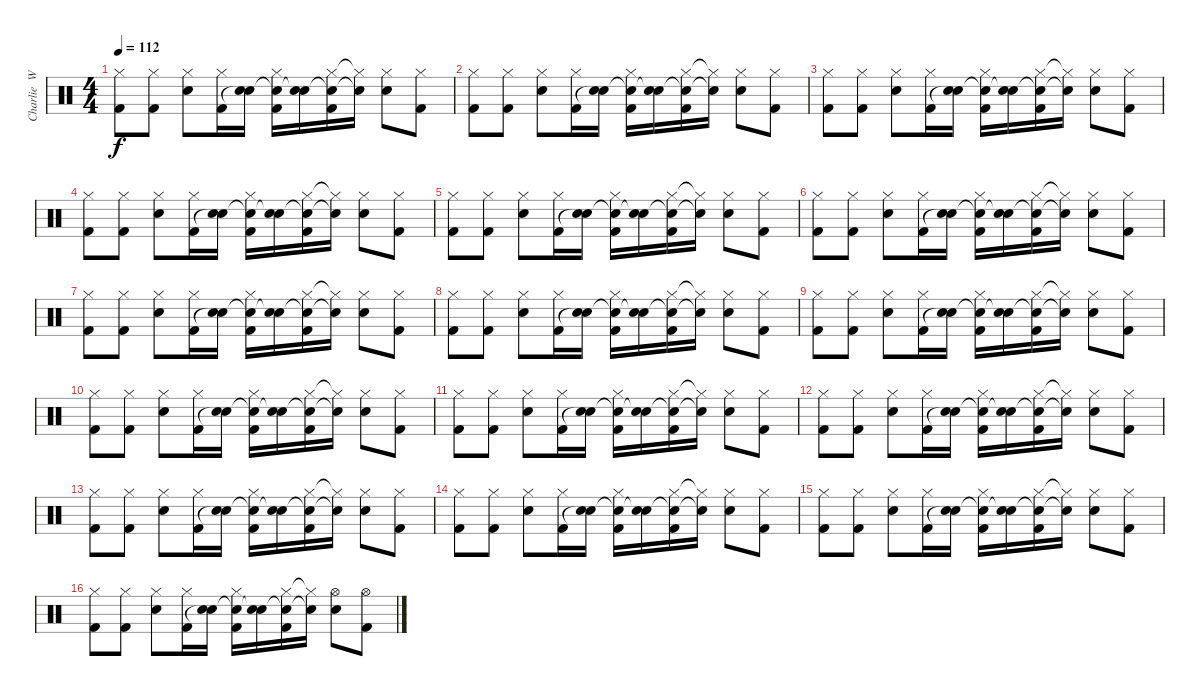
\track ("Charlie  Watts" "Charlie  W") {instrument percussion}
\staff {score}
\articulation defaults
\ts (4 4)
\tempo 112
\clef neutral
\ks c
("Hi-Hat (closed)" "Kick (hit) 2").8{dy f} ("Hi-Hat (closed)" "Kick (hit) 2").8 ("Hi-Hat (closed)" "Snare (hit) 2").8 ("Hi-Hat (closed)" "Kick (hit) 2").16 ("Snare (hit) 2" "Snare (hit)"{t}).16 ("Hi-Hat (closed)" "Snare (hit)"{t} "Kick (hit) 2").16 ("Snare (hit) 2" "Snare (hit)"{t}).16 ("Hi-Hat (closed)" "Snare (hit)"{t} "Kick (hit) 2").16 ("Hi-Hat (closed)"{t} "Snare (hit)"{t}).16 ("Hi-Hat (closed)" "Snare (hit) 2").8 ("Hi-Hat (closed)" "Kick (hit) 2").8 |
("Hi-Hat (closed)" "Kick (hit) 2").8 ("Hi-Hat (closed)" "Kick (hit) 2").8 ("Hi-Hat (closed)" "Snare (hit) 2").8 ("Hi-Hat (closed)" "Kick (hit) 2").16 ("Snare (hit) 2" "Snare (hit)"{t}).16 ("Hi-Hat (closed)" "Snare (hit)"{t} "Kick (hit) 2").16 ("Snare (hit) 2" "Snare (hit)"{t}).16 ("Hi-Hat (closed)" "Snare (hit)"{t} "Kick (hit) 2").16 ("Hi-Hat (closed)"{t} "Snare (hit)"{t}).16 ("Hi-Hat (closed)" "Snare (hit) 2").8 ("Hi-Hat (closed)" "Kick (hit) 2").8 |
("Hi-Hat (closed)" "Kick (hit) 2").8 ("Hi-Hat (closed)" "Kick (hit) 2").8 ("Hi-Hat (closed)" "Snare (hit) 2").8 ("Hi-Hat (closed)" "Kick (hit) 2").16 ("Snare (hit) 2" "Snare (hit)"{t}).16 ("Hi-Hat (closed)" "Snare (hit)"{t} "Kick (hit) 2").16 ("Snare (hit) 2" "Snare (hit)"{t}).16 ("Hi-Hat (closed)" "Snare (hit)"{t} "Kick (hit) 2").16 ("Hi-Hat (closed)"{t} "Snare (hit)"{t}).16 ("Hi-Hat (closed)" "Snare (hit) 2").8 ("Hi-Hat (closed)" "Kick (hit) 2").8 |
("Hi-Hat (closed)" "Kick (hit) 2").8 ("Hi-Hat (closed)" "Kick (hit) 2").8 ("Hi-Hat (closed)" "Snare (hit) 2").8 ("Hi-Hat (closed)" "Kick (hit) 2").16 ("Snare (hit) 2" "Snare (hit)"{t}).16 ("Hi-Hat (closed)" "Snare (hit)"{t} "Kick (hit) 2").16 ("Snare (hit) 2" "Snare (hit)"{t}).16 ("Hi-Hat (closed)" "Snare (hit)"{t} "Kick (hit) 2").16 ("Hi-Hat (closed)"{t} "Snare (hit)"{t}).16 ("Hi-Hat (closed)" "Snare (hit) 2").8 ("Hi-Hat (closed)" "Kick (hit) 2").8 |
("Hi-Hat (closed)" "Kick (hit) 2").8 ("Hi-Hat (closed)" "Kick (hit) 2").8 ("Hi-Hat (closed)" "Snare (hit) 2").8 ("Hi-Hat (closed)" "Kick (hit) 2").16 ("Snare (hit) 2" "Snare (hit)"{t}).16 ("Hi-Hat (closed)" "Snare (hit)"{t} "Kick (hit) 2").16 ("Snare (hit) 2" "Snare (hit)"{t}).16 ("Hi-Hat (closed)" "Snare (hit)"{t} "Kick (hit) 2").16 ("Hi-Hat (closed)"{t} "Snare (hit)"{t}).16 ("Hi-Hat (closed)" "Snare (hit) 2").8 ("Hi-Hat (closed)" "Kick (hit) 2").8 |
("Hi-Hat (closed)" "Kick (hit) 2").8 ("Hi-Hat (closed)" "Kick (hit) 2").8 ("Hi-Hat (closed)" "Snare (hit) 2").8 ("Hi-Hat (closed)" "Kick (hit) 2").16 ("Snare (hit) 2" "Snare (hit)"{t}).16 ("Hi-Hat (closed)" "Snare (hit)"{t} "Kick (hit) 2").16 ("Snare (hit) 2" "Snare (hit)"{t}).16 ("Hi-Hat (closed)" "Snare (hit)"{t} "Kick (hit) 2").16 ("Hi-Hat (closed)"{t} "Snare (hit)"{t}).16 ("Hi-Hat (closed)" "Snare (hit) 2").8 ("Hi-Hat (closed)" "Kick (hit) 2").8 |
("Hi-Hat (closed)" "Kick (hit) 2").8 ("Hi-Hat (closed)" "Kick (hit) 2").8 ("Hi-Hat (closed)" "Snare (hit) 2").8 ("Hi-Hat (closed)" "Kick (hit) 2").16 ("Snare (hit) 2" "Snare (hit)"{t}).16 ("Hi-Hat (closed)" "Snare (hit)"{t} "Kick (hit) 2").16 ("Snare (hit) 2" "Snare (hit)"{t}).16 ("Hi-Hat (closed)" "Snare (hit)"{t} "Kick (hit) 2").16 ("Hi-Hat (closed)"{t} "Snare (hit)"{t}).16 ("Hi-Hat (closed)" "Snare (hit) 2").8 ("Hi-Hat (closed)" "Kick (hit) 2").8 |
("Hi-Hat (closed)" "Kick (hit) 2").8 ("Hi-Hat (closed)" "Kick (hit) 2").8 ("Hi-Hat (closed)" "Snare (hit) 2").8 ("Hi-Hat (closed)" "Kick (hit) 2").16 ("Snare (hit) 2" "Snare (hit)"{t}).16 ("Hi-Hat (closed)" "Snare (hit)"{t} "Kick (hit) 2").16 ("Snare (hit) 2" "Snare (hit)"{t}).16 ("Hi-Hat (closed)" "Snare (hit)"{t} "Kick (hit) 2").16 ("Hi-Hat (closed)"{t} "Snare (hit)"{t}).16 ("Hi-Hat (closed)" "Snare (hit) 2").8 ("Hi-Hat (closed)" "Kick (hit) 2").8 |
("Hi-Hat (closed)" "Kick (hit) 2").8 ("Hi-Hat (closed)" "Kick (hit) 2").8 ("Hi-Hat (closed)" "Snare (hit) 2").8 ("Hi-Hat (closed)" "Kick (hit) 2").16 ("Snare (hit) 2" "Snare (hit)"{t}).16 ("Hi-Hat (closed)" "Snare (hit)"{t} "Kick (hit) 2").16 ("Snare (hit) 2" "Snare (hit)"{t}).16 ("Hi-Hat (closed)" "Snare (hit)"{t} "Kick (hit) 2").16 ("Hi-Hat (closed)"{t} "Snare (hit)"{t}).16 ("Hi-Hat (closed)" "Snare (hit) 2").8 ("Hi-Hat (closed)" "Kick (hit) 2").8 |
("Hi-Hat (closed)" "Kick (hit) 2").8 ("Hi-Hat (closed)" "Kick (hit) 2").8 ("Hi-Hat (closed)" "Snare (hit) 2").8 ("Hi-Hat (closed)" "Kick (hit) 2").16 ("Snare (hit) 2" "Snare (hit)"{t}).16 ("Hi-Hat (closed)" "Snare (hit)"{t} "Kick (hit) 2").16 ("Snare (hit) 2" "Snare (hit)"{t}).16 ("Hi-Hat (closed)" "Snare (hit)"{t} "Kick (hit) 2").16 ("Hi-Hat (closed)"{t} "Snare (hit)"{t}).16 ("Hi-Hat (closed)" "Snare (hit) 2").8 ("Hi-Hat (closed)" "Kick (hit) 2").8 |
("Hi-Hat (closed)" "Kick (hit) 2").8 ("Hi-Hat (closed)" "Kick (hit) 2").8 ("Hi-Hat (closed)" "Snare (hit) 2").8 ("Hi-Hat (closed)" "Kick (hit) 2").16 ("Snare (hit) 2" "Snare (hit)"{t}).16 ("Hi-Hat (closed)" "Snare (hit)"{t} "Kick (hit) 2").16 ("Snare (hit) 2" "Snare (hit)"{t}).16 ("Hi-Hat (closed)" "Snare (hit)"{t} "Kick (hit) 2").16 ("Hi-Hat (closed)"{t} "Snare (hit)"{t}).16 ("Hi-Hat (closed)" "Snare (hit) 2").8 ("Hi-Hat (closed)" "Kick (hit) 2").8 |
("Hi-Hat (closed)" "Kick (hit) 2").8 ("Hi-Hat (closed)" "Kick (hit) 2").8 ("Hi-Hat (closed)" "Snare (hit) 2").8 ("Hi-Hat (closed)" "Kick (hit) 2").16 ("Snare (hit) 2" "Snare (hit)"{t}).16 ("Hi-Hat (closed)" "Snare (hit)"{t} "Kick (hit) 2").16 ("Snare (hit) 2" "Snare (hit)"{t}).16 ("Hi-Hat (closed)" "Snare (hit)"{t} "Kick (hit) 2").16 ("Hi-Hat (closed)"{t} "Snare (hit)"{t}).16 ("Hi-Hat (closed)" "Snare (hit) 2").8 ("Hi-Hat (closed)" "Kick (hit) 2").8 |
("Hi-Hat (closed)" "Kick (hit) 2").8 ("Hi-Hat (closed)" "Kick (hit) 2").8 ("Hi-Hat (closed)" "Snare (hit) 2").8 ("Hi-Hat (closed)" "Kick (hit) 2").16 ("Snare (hit) 2" "Snare (hit)"{t}).16 ("Hi-Hat (closed)" "Snare (hit)"{t} "Kick (hit) 2").16 ("Snare (hit) 2" "Snare (hit)"{t}).16 ("Hi-Hat (closed)" "Snare (hit)"{t} "Kick (hit) 2").16 ("Hi-Hat (closed)"{t} "Snare (hit)"{t}).16 ("Hi-Hat (closed)" "Snare (hit) 2").8 ("Hi-Hat (closed)" "Kick (hit) 2").8 |
("Hi-Hat (closed)" "Kick (hit) 2").8 ("Hi-Hat (closed)" "Kick (hit) 2").8 ("Hi-Hat (closed)" "Snare (hit) 2").8 ("Hi-Hat (closed)" "Kick (hit) 2").16 ("Snare (hit) 2" "Snare (hit)"{t}).16 ("Hi-Hat (closed)" "Snare (hit)"{t} "Kick (hit) 2").16 ("Snare (hit) 2" "Snare (hit)"{t}).16 ("Hi-Hat (closed)" "Snare (hit)"{t} "Kick (hit) 2").16 ("Hi-Hat (closed)"{t} "Snare (hit)"{t}).16 ("Hi-Hat (closed)" "Snare (hit) 2").8 ("Hi-Hat (closed)" "Kick (hit) 2").8 |
("Hi-Hat (closed)" "Kick (hit) 2").8 ("Hi-Hat (closed)" "Kick (hit) 2").8 ("Hi-Hat (closed)" "Snare (hit) 2").8 ("Hi-Hat (closed)" "Kick (hit) 2").16 ("Snare (hit) 2" "Snare (hit)"{t}).16 ("Hi-Hat (closed)" "Snare (hit)"{t} "Kick (hit) 2").16 ("Snare (hit) 2" "Snare (hit)"{t}).16 ("Hi-Hat (closed)" "Snare (hit)"{t} "Kick (hit) 2").16 ("Hi-Hat (closed)"{t} "Snare (hit)"{t}).16 ("Hi-Hat (closed)" "Snare (hit) 2").8 ("Hi-Hat (closed)" "Kick (hit) 2").8 |
("Hi-Hat (closed)" "Kick (hit) 2").8 ("Hi-Hat (closed)" "Kick (hit) 2").8 ("Hi-Hat (closed)" "Snare (hit) 2").8 ("Hi-Hat (closed)" "Kick (hit) 2").16 ("Snare (hit) 2" "Snare (hit)"{t}).16 ("Hi-Hat (closed)" "Snare (hit)"{t} "Kick (hit) 2").16 ("Snare (hit) 2" "Snare (hit)"{t}).16 ("Hi-Hat (closed)" "Snare (hit)"{t} "Kick (hit) 2").16 ("Hi-Hat (closed)"{t} "Snare (hit)"{t}).16 ("Hi-Hat (open)" "Snare (hit) 2").8 ("Hi-Hat (open)" "Kick (hit) 2").8
